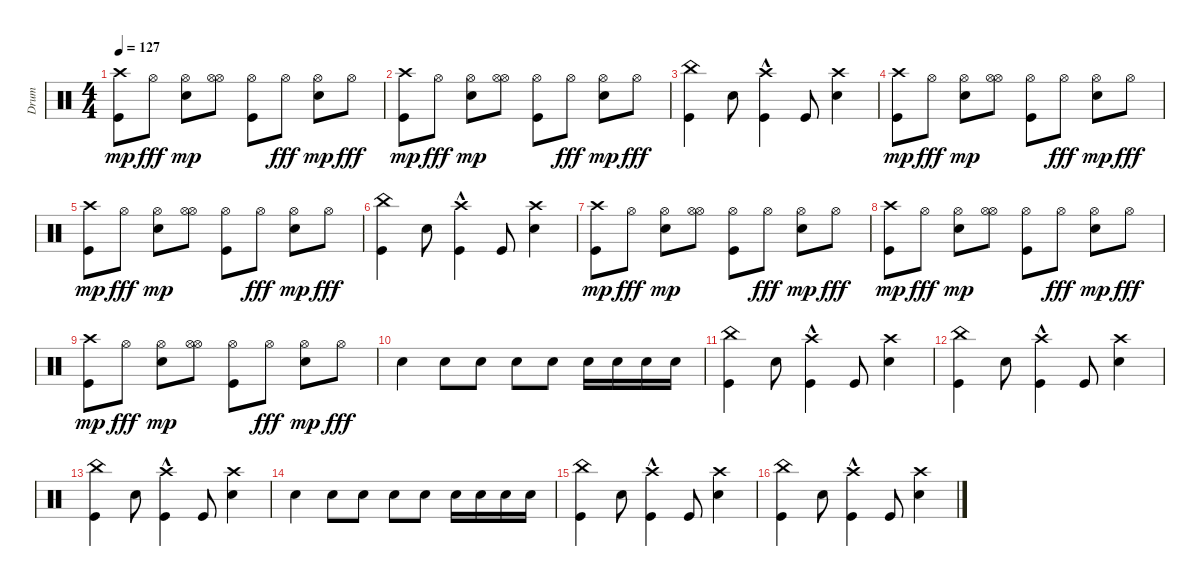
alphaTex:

\track ("Drum" "Drum") {instrument percussion}
\staff {score}
\articulation defaults
\ts (4 4)
\tempo 127
\clef neutral
\ks c
("Crash high (hit)" "Kick (hit)").8{dy mp} "Hi-Hat (open)".8{dy fff} ("Electric Snare (hit)" "Hi-Hat (open)").8{dy mp} ("Hi-Hat (open)" "Hi-Hat (open)").8 ("Kick (hit)" "Hi-Hat (open)").8 "Hi-Hat (open)".8{dy fff} ("Electric Snare (hit)" "Hi-Hat (open)").8{dy mp} "Hi-Hat (open)".8{dy fff} |
("Crash high (hit)" "Kick (hit)").8{dy mp} "Hi-Hat (open)".8{dy fff} ("Electric Snare (hit)" "Hi-Hat (open)").8{dy mp} ("Hi-Hat (open)" "Hi-Hat (open)").8 ("Kick (hit)" "Hi-Hat (open)").8 "Hi-Hat (open)".8{dy fff} ("Electric Snare (hit)" "Hi-Hat (open)").8{dy mp} "Hi-Hat (open)".8{dy fff} |
("Kick (hit)" "China (hit)").4 "Electric Snare (hit)".8 ("Crash high (hit)"{hac} "Kick (hit)").4 "Kick (hit)".8 ("Crash high (hit)" "Electric Snare (hit)").4 |
("Crash high (hit)" "Kick (hit)").8{dy mp} "Hi-Hat (open)".8{dy fff} ("Electric Snare (hit)" "Hi-Hat (open)").8{dy mp} ("Hi-Hat (open)" "Hi-Hat (open)").8 ("Kick (hit)" "Hi-Hat (open)").8 "Hi-Hat (open)".8{dy fff} ("Electric Snare (hit)" "Hi-Hat (open)").8{dy mp} "Hi-Hat (open)".8{dy fff} |
("Crash high (hit)" "Kick (hit)").8{dy mp} "Hi-Hat (open)".8{dy fff} ("Electric Snare (hit)" "Hi-Hat (open)").8{dy mp} ("Hi-Hat (open)" "Hi-Hat (open)").8 ("Kick (hit)" "Hi-Hat (open)").8 "Hi-Hat (open)".8{dy fff} ("Electric Snare (hit)" "Hi-Hat (open)").8{dy mp} "Hi-Hat (open)".8{dy fff} |
("Kick (hit)" "China (hit)").4 "Electric Snare (hit)".8 ("Crash high (hit)"{hac} "Kick (hit)").4 "Kick (hit)".8 ("Crash high (hit)" "Electric Snare (hit)").4 |
("Crash high (hit)" "Kick (hit)").8{dy mp} "Hi-Hat (open)".8{dy fff} ("Electric Snare (hit)" "Hi-Hat (open)").8{dy mp} ("Hi-Hat (open)" "Hi-Hat (open)").8 ("Kick (hit)" "Hi-Hat (open)").8 "Hi-Hat (open)".8{dy fff} ("Electric Snare (hit)" "Hi-Hat (open)").8{dy mp} "Hi-Hat (open)".8{dy fff} |
("Crash high (hit)" "Kick (hit)").8{dy mp} "Hi-Hat (open)".8{dy fff} ("Electric Snare (hit)" "Hi-Hat (open)").8{dy mp} ("Hi-Hat (open)" "Hi-Hat (open)").8 ("Kick (hit)" "Hi-Hat (open)").8 "Hi-Hat (open)".8{dy fff} ("Electric Snare (hit)" "Hi-Hat (open)").8{dy mp} "Hi-Hat (open)".8{dy fff} |
("Crash high (hit)" "Kick (hit)").8{dy mp} "Hi-Hat (open)".8{dy fff} ("Electric Snare (hit)" "Hi-Hat (open)").8{dy mp} ("Hi-Hat (open)" "Hi-Hat (open)").8 ("Kick (hit)" "Hi-Hat (open)").8 "Hi-Hat (open)".8{dy fff} ("Electric Snare (hit)" "Hi-Hat (open)").8{dy mp} "Hi-Hat (open)".8{dy fff} |
"Electric Snare (hit)".4 "Electric Snare (hit)".8 "Electric Snare (hit)".8 "Electric Snare (hit)".8 "Electric Snare (hit)".8 "Electric Snare (hit)".16 "Electric Snare (hit)".16 "Electric Snare (hit)".16 "Electric Snare (hit)".16 |
("Kick (hit)" "China (hit)").4 "Electric Snare (hit)".8 ("Crash high (hit)"{hac} "Kick (hit)").4 "Kick (hit)".8 ("Crash high (hit)" "Electric Snare (hit)").4 |
("Kick (hit)" "China (hit)").4 "Electric Snare (hit)".8 ("Crash high (hit)"{hac} "Kick (hit)").4 "Kick (hit)".8 ("Crash high (hit)" "Electric Snare (hit)").4 |
("Kick (hit)" "China (hit)").4 "Electric Snare (hit)".8 ("Crash high (hit)"{hac} "Kick (hit)").4 "Kick (hit)".8 ("Crash high (hit)" "Electric Snare (hit)").4 |
"Electric Snare (hit)".4 "Electric Snare (hit)".8 "Electric Snare (hit)".8 "Electric Snare (hit)".8 "Electric Snare (hit)".8 "Electric Snare (hit)".16 "Electric Snare (hit)".16 "Electric Snare (hit)".16 "Electric Snare (hit)".16 |
("Kick (hit)" "China (hit)").4 "Electric Snare (hit)".8 ("Crash high (hit)"{hac} "Kick (hit)").4 "Kick (hit)".8 ("Crash high (hit)" "Electric Snare (hit)").4 |
("Kick (hit)" "China (hit)").4 "Electric Snare (hit)".8 ("Crash high (hit)"{hac} "Kick (hit)").4 "Kick (hit)".8 ("Crash high (hit)" "Electric Snare (hit)").4
